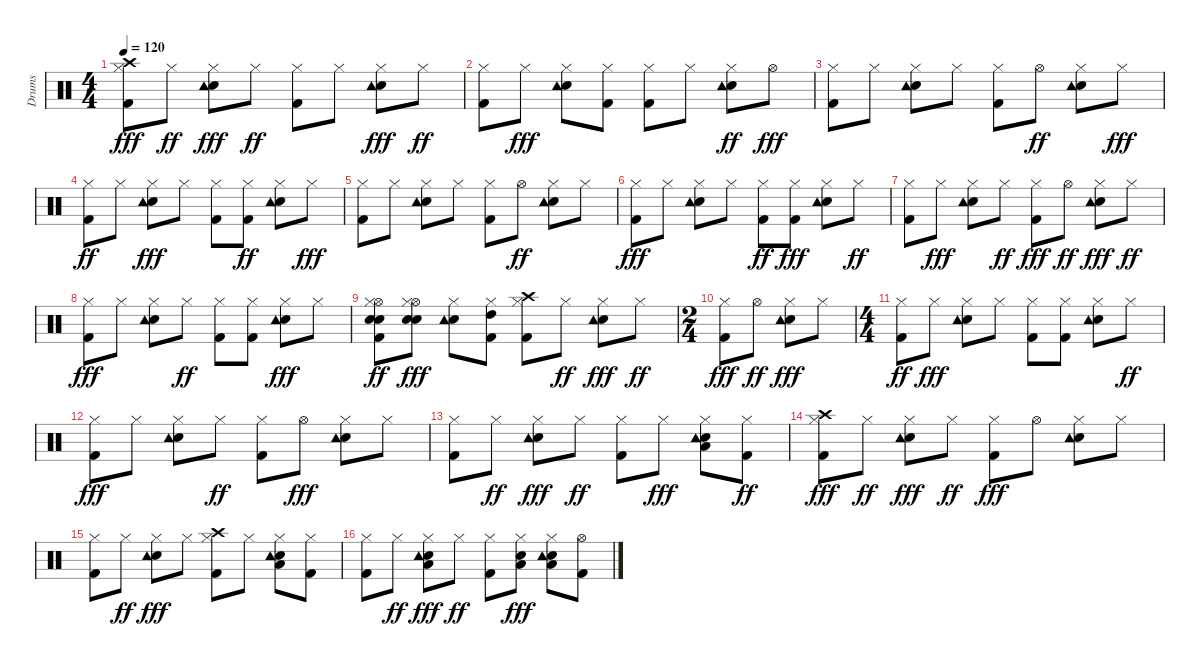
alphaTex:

\track ("Drums" "Drums") {instrument percussion}
\staff {score}
\articulation defaults
\ts (4 4)
\tempo 120
\clef neutral
\ks c
("Kick (hit) 2" "Hi-Hat (closed)" "Crash high (hit)").8{dy fff} "Hi-Hat (closed)".8{dy ff} ("Hi-Hat (closed)" "Snare (hit) 2" "Tambourine (hit)").8{dy fff} "Hi-Hat (closed)".8{dy ff} ("Kick (hit) 2" "Hi-Hat (closed)").8 "Hi-Hat (closed)".8 ("Hi-Hat (closed)" "Snare (hit) 2" "Tambourine (hit)").8{dy fff} "Hi-Hat (closed)".8{dy ff} |
("Kick (hit) 2" "Hi-Hat (closed)").8 "Hi-Hat (closed)".8{dy fff} ("Hi-Hat (closed)" "Snare (hit) 2" "Tambourine (hit)").8 ("Kick (hit) 2" "Hi-Hat (closed)").8 ("Kick (hit) 2" "Hi-Hat (closed)").8 "Hi-Hat (closed)".8 ("Hi-Hat (closed)" "Snare (hit) 2" "Tambourine (hit)").8{dy ff} "Hi-Hat (open)".8{dy fff} |
("Kick (hit) 2" "Hi-Hat (closed)").8 "Hi-Hat (closed)".8 ("Hi-Hat (closed)" "Snare (hit) 2" "Tambourine (hit)").8 "Hi-Hat (closed)".8 ("Kick (hit) 2" "Hi-Hat (closed)").8 "Hi-Hat (open)".8{dy ff} ("Hi-Hat (closed)" "Snare (hit) 2" "Tambourine (hit)").8 "Hi-Hat (closed)".8{dy fff} |
("Kick (hit) 2" "Hi-Hat (closed)").8{dy ff} "Hi-Hat (closed)".8 ("Hi-Hat (closed)" "Snare (hit) 2" "Tambourine (hit)").8{dy fff} "Hi-Hat (closed)".8 ("Kick (hit) 2" "Hi-Hat (closed)").8 ("Kick (hit) 2" "Hi-Hat (closed)").8{dy ff} ("Hi-Hat (closed)" "Snare (hit) 2" "Tambourine (hit)").8 "Hi-Hat (closed)".8{dy fff} |
("Kick (hit) 2" "Hi-Hat (closed)").8 "Hi-Hat (closed)".8 ("Hi-Hat (closed)" "Snare (hit) 2" "Tambourine (hit)").8 "Hi-Hat (closed)".8 ("Kick (hit) 2" "Hi-Hat (closed)").8 "Hi-Hat (open)".8{dy ff} ("Hi-Hat (closed)" "Snare (hit) 2" "Tambourine (hit)").8 "Hi-Hat (closed)".8 |
("Kick (hit) 2" "Hi-Hat (closed)").8{dy fff} "Hi-Hat (closed)".8 ("Hi-Hat (closed)" "Snare (hit) 2" "Tambourine (hit)").8 "Hi-Hat (closed)".8 ("Kick (hit) 2" "Hi-Hat (closed)").8{dy ff} ("Kick (hit) 2" "Hi-Hat (closed)").8{dy fff} ("Hi-Hat (closed)" "Snare (hit) 2" "Tambourine (hit)").8 "Hi-Hat (closed)".8{dy ff} |
("Kick (hit) 2" "Hi-Hat (closed)").8 "Hi-Hat (closed)".8{dy fff} ("Hi-Hat (closed)" "Snare (hit) 2" "Tambourine (hit)").8 "Hi-Hat (closed)".8{dy ff} ("Kick (hit) 2" "Hi-Hat (closed)").8{dy fff} "Hi-Hat (open)".8{dy ff} ("Hi-Hat (closed)" "Snare (hit) 2" "Tambourine (hit)").8{dy fff} "Hi-Hat (closed)".8{dy ff} |
("Kick (hit) 2" "Hi-Hat (closed)").8{dy fff} "Hi-Hat (closed)".8 ("Hi-Hat (closed)" "Snare (hit) 2" "Tambourine (hit)").8 "Hi-Hat (closed)".8{dy ff} ("Kick (hit) 2" "Hi-Hat (closed)").8 ("Kick (hit) 2" "Hi-Hat (closed)").8 ("Hi-Hat (closed)" "Snare (hit) 2" "Tambourine (hit)").8{dy fff} "Hi-Hat (closed)".8 |
("Kick (hit) 2" "Snare (hit) 2" "Hi-Hat (open)" "Hi-Hat (closed)" "Snare (hit) 2").8{dy ff} ("Hi-Hat (open)" "Snare (hit) 2" "Hi-Hat (closed)" "Snare (hit) 2").8{dy fff} ("Hi-Hat (closed)" "Snare (hit) 2" "Tambourine (hit)").8 ("Kick (hit) 2" "Hi-Hat (closed)" "High Tom (hit)").8 ("Kick (hit) 2" "Hi-Hat (closed)" "Crash high (hit)").8 "Hi-Hat (closed)".8{dy ff} ("Hi-Hat (closed)" "Snare (hit) 2" "Tambourine (hit)").8{dy fff} "Hi-Hat (closed)".8{dy ff} |
\ts (2 4)
("Kick (hit) 2" "Hi-Hat (closed)").8{dy fff} "Hi-Hat (open)".8{dy ff} ("Hi-Hat (closed)" "Snare (hit) 2" "Tambourine (hit)").8{dy fff} "Hi-Hat (closed)".8 |
\ts (4 4)
("Kick (hit) 2" "Hi-Hat (closed)").8{dy ff} "Hi-Hat (closed)".8{dy fff} ("Hi-Hat (closed)" "Snare (hit) 2" "Tambourine (hit)").8 "Hi-Hat (closed)".8 ("Kick (hit) 2" "Hi-Hat (closed)").8 ("Kick (hit) 2" "Hi-Hat (closed)").8 ("Hi-Hat (closed)" "Snare (hit) 2" "Tambourine (hit)").8 "Hi-Hat (closed)".8{dy ff} |
("Kick (hit) 2" "Hi-Hat (closed)").8{dy fff} "Hi-Hat (closed)".8 ("Hi-Hat (closed)" "Snare (hit) 2" "Tambourine (hit)").8 "Hi-Hat (closed)".8{dy ff} ("Kick (hit) 2" "Hi-Hat (closed)").8 "Hi-Hat (open)".8{dy fff} ("Hi-Hat (closed)" "Snare (hit) 2" "Tambourine (hit)").8 "Hi-Hat (closed)".8 |
("Kick (hit) 2" "Hi-Hat (closed)").8 "Hi-Hat (closed)".8{dy ff} ("Hi-Hat (closed)" "Snare (hit) 2" "Tambourine (hit)").8{dy fff} "Hi-Hat (closed)".8{dy ff} ("Kick (hit) 2" "Hi-Hat (closed)").8 "Hi-Hat (closed)".8{dy fff} ("Hi-Hat (closed)" "Low Floor Tom (hit)" "Snare (hit) 2" "Tambourine (hit)").8 ("Kick (hit) 2" "Hi-Hat (closed)").8{dy ff} |
("Kick (hit) 2" "Hi-Hat (closed)" "Crash high (hit)").8{dy fff} "Hi-Hat (closed)".8{dy ff} ("Hi-Hat (closed)" "Snare (hit) 2" "Tambourine (hit)").8{dy fff} "Hi-Hat (closed)".8{dy ff} ("Kick (hit) 2" "Hi-Hat (closed)").8{dy fff} "Hi-Hat (open)".8 ("Hi-Hat (closed)" "Snare (hit) 2" "Tambourine (hit)").8 "Hi-Hat (closed)".8 |
("Kick (hit) 2" "Hi-Hat (closed)").8 "Hi-Hat (closed)".8{dy ff} ("Hi-Hat (closed)" "Snare (hit) 2" "Tambourine (hit)").8{dy fff} "Hi-Hat (closed)".8 ("Kick (hit) 2" "Hi-Hat (closed)" "Crash high (hit)").8 "Hi-Hat (closed)".8 ("Hi-Hat (closed)" "Low Floor Tom (hit)" "Snare (hit) 2" "Tambourine (hit)").8 ("Kick (hit) 2" "Hi-Hat (closed)").8 |
("Kick (hit) 2" "Hi-Hat (closed)").8 "Hi-Hat (closed)".8{dy ff} ("Hi-Hat (closed)" "Low Floor Tom (hit)" "Snare (hit) 2" "Tambourine (hit)").8{dy fff} "Hi-Hat (closed)".8{dy ff} ("Kick (hit) 2" "Hi-Hat (closed)").8 ("Hi-Hat (closed)" "Low Floor Tom (hit)" "Snare (hit) 2").8{dy fff} ("Hi-Hat (closed)" "Low Floor Tom (hit)" "Snare (hit) 2" "Tambourine (hit)").8 ("Kick (hit) 2" "Hi-Hat (open)").8
